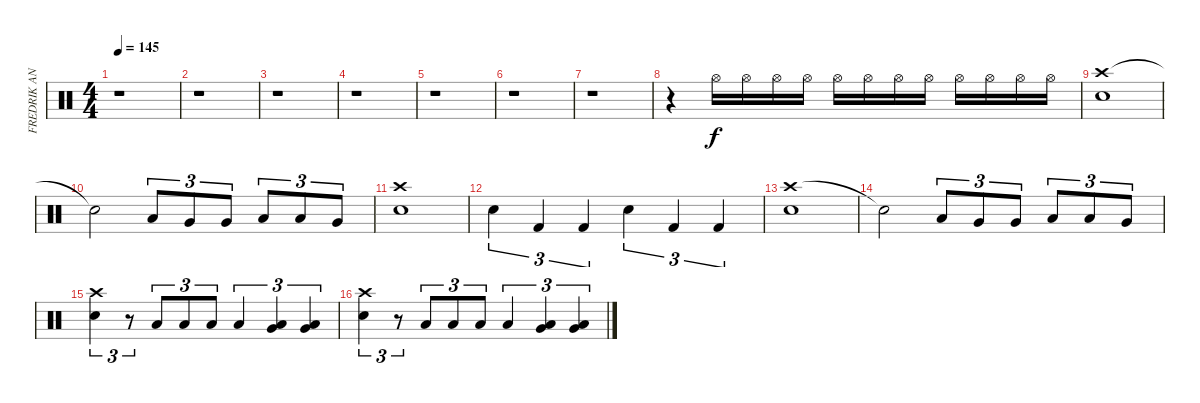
\track ("FREDRIK ANDERSSON" "FREDRIK AN") {instrument percussion}
\staff {score}
\articulation defaults
\ts (4 4)
\tempo 145
\clef neutral
\ks c
r.1{dy f} |
r.1 |
r.1 |
r.1 |
r.1 |
r.1 |
r.1 |
r.4{volume 0} "Hi-Hat (open)".16{volume 12} "Hi-Hat (open)".16 "Hi-Hat (open)".16 "Hi-Hat (open)".16 "Hi-Hat (open)".16 "Hi-Hat (open)".16 "Hi-Hat (open)".16 "Hi-Hat (open)".16 "Hi-Hat (open)".16 "Hi-Hat (open)".16 "Hi-Hat (open)".16 "Hi-Hat (open)".16 |
("Crash high (hit)" "Snare (hit) 2").1{volume 13} |
"Snare (hit)"{t}.2 "Low Floor Tom (hit)".8{tu (3 2)} "Very Low Tom (hit)".8{tu (3 2)} "Very Low Tom (hit)".8{tu (3 2)} "Low Tom (hit)".8{tu (3 2)} "Low Tom (hit)".8{tu (3 2)} "Very Low Tom (hit)".8{tu (3 2)} |
("Snare (hit) 2" "Crash high (hit)").1 |
"Snare (hit) 2".4{tu (3 2)} "Kick (hit) 2".4{tu (3 2)} "Kick (hit) 2".4{tu (3 2)} "Snare (hit) 2".4{tu (3 2)} "Kick (hit) 2".4{tu (3 2)} "Kick (hit) 2".4{tu (3 2)} |
("Crash high (hit)" "Snare (hit) 2").1{volume 13} |
"Snare (hit)"{t}.2 "Low Floor Tom (hit)".8{tu (3 2)} "Very Low Tom (hit)".8{tu (3 2)} "Very Low Tom (hit)".8{tu (3 2)} "Low Tom (hit)".8{tu (3 2)} "Low Tom (hit)".8{tu (3 2)} "Very Low Tom (hit)".8{tu (3 2)} |
("Crash high (hit)" "Snare (hit) 2").4{tu (3 2)} r.8{tu (3 2)} "Low Floor Tom (hit)".8{tu (3 2)} "Low Floor Tom (hit)".8{tu (3 2)} "Low Floor Tom (hit)".8{tu (3 2)} "Low Floor Tom (hit)".4{tu (3 2)} ("Very Low Tom (hit)" "Low Floor Tom (hit)").4{tu (3 2)} ("Very Low Tom (hit)" "Low Floor Tom (hit)").4{tu (3 2)} |
("Crash high (hit)" "Snare (hit) 2").4{tu (3 2)} r.8{tu (3 2)} "Low Floor Tom (hit)".8{tu (3 2)} "Low Floor Tom (hit)".8{tu (3 2)} "Low Floor Tom (hit)".8{tu (3 2)} "Low Floor Tom (hit)".4{tu (3 2)} ("Very Low Tom (hit)" "Low Floor Tom (hit)").4{tu (3 2)} ("Very Low Tom (hit)" "Low Floor Tom (hit)").4{tu (3 2)}
